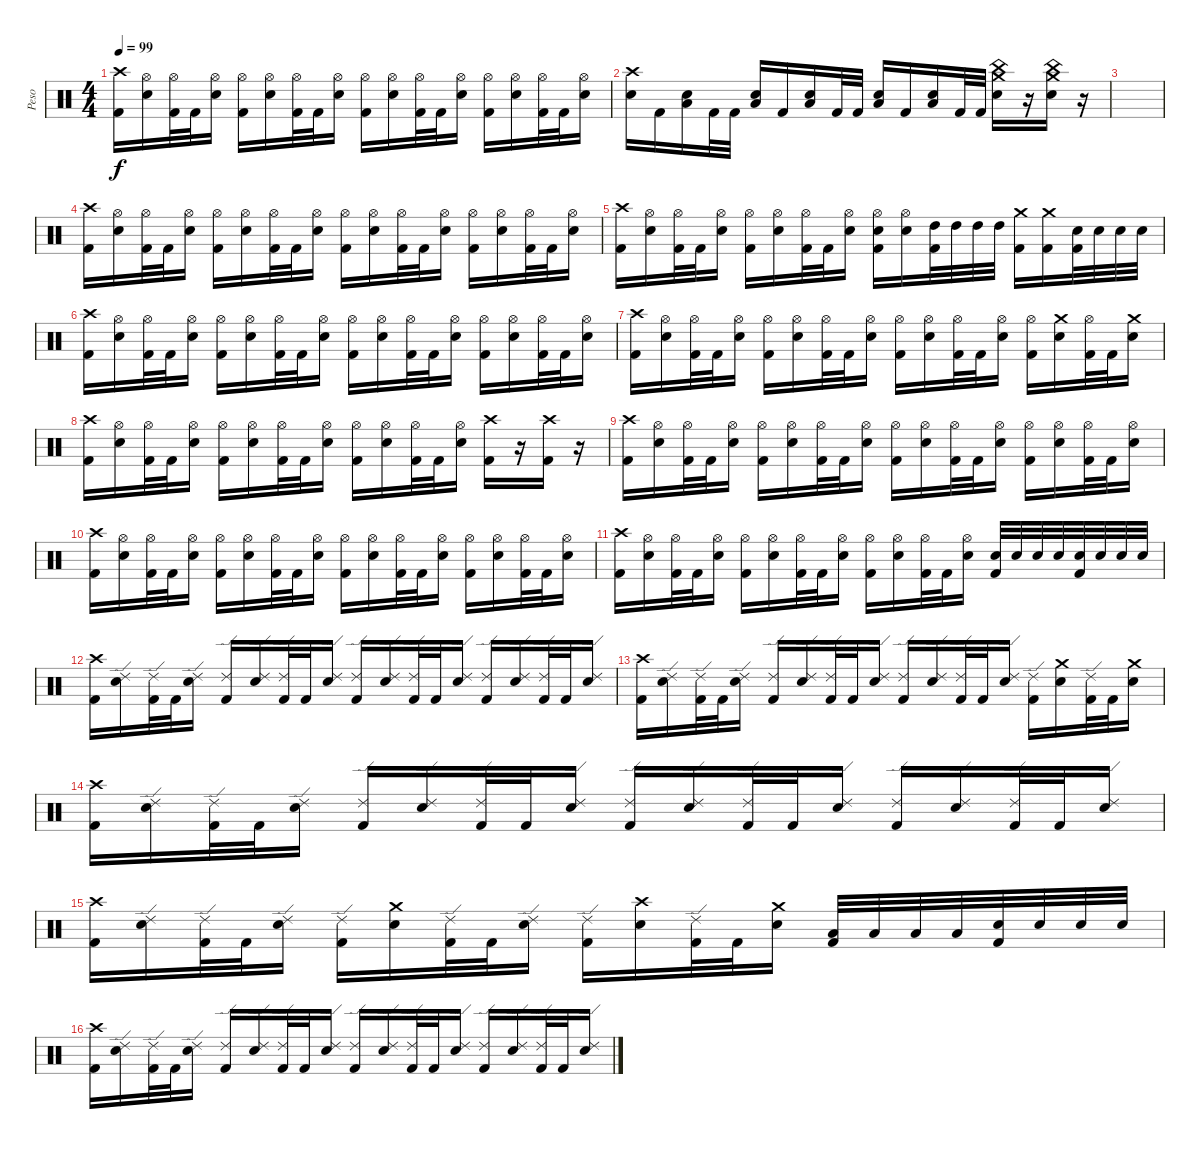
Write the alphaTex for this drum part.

\track ("Peso" "Peso") {instrument percussion}
\staff {score}
\articulation defaults
\ts (4 4)
\tempo 99
\clef neutral
\ks c
("Crash high (hit)" "Kick (hit) 2").16{dy f} ("Hi-Hat (open)" "Electric Snare (hit)").16 ("Hi-Hat (open)" "Kick (hit) 2").32 "Kick (hit) 2".32 ("Hi-Hat (open)" "Electric Snare (hit)").16 ("Hi-Hat (open)" "Kick (hit) 2").16 ("Hi-Hat (open)" "Electric Snare (hit)").16 ("Hi-Hat (open)" "Kick (hit) 2").32 "Kick (hit) 2".32 ("Hi-Hat (open)" "Electric Snare (hit)").16 ("Hi-Hat (open)" "Kick (hit) 2").16 ("Hi-Hat (open)" "Electric Snare (hit)").16 ("Hi-Hat (open)" "Kick (hit) 2").32 "Kick (hit) 2".32 ("Hi-Hat (open)" "Electric Snare (hit)").16 ("Hi-Hat (open)" "Kick (hit) 2").16 ("Hi-Hat (open)" "Electric Snare (hit)").16 ("Hi-Hat (open)" "Kick (hit) 2").32 "Kick (hit) 2".32 ("Hi-Hat (open)" "Electric Snare (hit)").16 |
("Crash high (hit)" "Electric Snare (hit)").16 "Kick (hit) 2".16 ("Low Floor Tom (hit)" "Electric Snare (hit)").16 "Kick (hit) 2".32 "Kick (hit) 2".32 ("Low Floor Tom (hit)" "Electric Snare (hit)").16 "Kick (hit) 2".16 ("Low Floor Tom (hit)" "Electric Snare (hit)").16 "Kick (hit) 2".32 "Kick (hit) 2".32 ("Low Floor Tom (hit)" "Electric Snare (hit)").16 "Kick (hit) 2".16 ("Low Floor Tom (hit)" "Electric Snare (hit)").16 "Kick (hit) 2".32 "Kick (hit) 2".32 ("Crash medium (hit)" "China (hit)" "Electric Snare (hit)").16 r.16 ("Crash medium (hit)" "China (hit)" "Electric Snare (hit)").16 r.16 |
|
("Crash high (hit)" "Kick (hit) 2").16 ("Hi-Hat (open)" "Electric Snare (hit)").16 ("Hi-Hat (open)" "Kick (hit) 2").32 "Kick (hit) 2".32 ("Hi-Hat (open)" "Electric Snare (hit)").16 ("Hi-Hat (open)" "Kick (hit) 2").16 ("Hi-Hat (open)" "Electric Snare (hit)").16 ("Hi-Hat (open)" "Kick (hit) 2").32 "Kick (hit) 2".32 ("Hi-Hat (open)" "Electric Snare (hit)").16 ("Hi-Hat (open)" "Kick (hit) 2").16 ("Hi-Hat (open)" "Electric Snare (hit)").16 ("Hi-Hat (open)" "Kick (hit) 2").32 "Kick (hit) 2".32 ("Hi-Hat (open)" "Electric Snare (hit)").16 ("Hi-Hat (open)" "Kick (hit) 2").16 ("Hi-Hat (open)" "Electric Snare (hit)").16 ("Hi-Hat (open)" "Kick (hit) 2").32 "Kick (hit) 2".32 ("Hi-Hat (open)" "Electric Snare (hit)").16 |
("Crash high (hit)" "Kick (hit) 2").16 ("Hi-Hat (open)" "Electric Snare (hit)").16 ("Hi-Hat (open)" "Kick (hit) 2").32 "Kick (hit) 2".32 ("Hi-Hat (open)" "Electric Snare (hit)").16 ("Hi-Hat (open)" "Kick (hit) 2").16 ("Hi-Hat (open)" "Electric Snare (hit)").16 ("Hi-Hat (open)" "Kick (hit) 2").32 "Kick (hit) 2".32 ("Hi-Hat (open)" "Electric Snare (hit)").16 ("Hi-Hat (open)" "Electric Snare (hit)" "Kick (hit) 2").16 ("Hi-Hat (open)" "Electric Snare (hit)").16 ("High Tom (hit)" "Kick (hit) 2").32 "High Tom (hit)".32 "High Tom (hit)".32 "High Tom (hit)".32 ("Crash medium (hit)" "Kick (hit) 2").16 ("Crash medium (hit)" "Kick (hit) 2").16 ("Electric Snare (hit)" "Kick (hit) 2").32 "Electric Snare (hit)".32 "Electric Snare (hit)".32 "Electric Snare (hit)".32 |
("Crash high (hit)" "Kick (hit) 2").16 ("Hi-Hat (open)" "Electric Snare (hit)").16 ("Hi-Hat (open)" "Kick (hit) 2").32 "Kick (hit) 2".32 ("Hi-Hat (open)" "Electric Snare (hit)").16 ("Hi-Hat (open)" "Kick (hit) 2").16 ("Hi-Hat (open)" "Electric Snare (hit)").16 ("Hi-Hat (open)" "Kick (hit) 2").32 "Kick (hit) 2".32 ("Hi-Hat (open)" "Electric Snare (hit)").16 ("Hi-Hat (open)" "Kick (hit) 2").16 ("Hi-Hat (open)" "Electric Snare (hit)").16 ("Hi-Hat (open)" "Kick (hit) 2").32 "Kick (hit) 2".32 ("Hi-Hat (open)" "Electric Snare (hit)").16 ("Hi-Hat (open)" "Kick (hit) 2").16 ("Hi-Hat (open)" "Electric Snare (hit)").16 ("Hi-Hat (open)" "Kick (hit) 2").32 "Kick (hit) 2".32 ("Hi-Hat (open)" "Electric Snare (hit)").16 |
("Crash high (hit)" "Kick (hit) 2").16 ("Hi-Hat (open)" "Electric Snare (hit)").16 ("Hi-Hat (open)" "Kick (hit) 2").32 "Kick (hit) 2".32 ("Hi-Hat (open)" "Electric Snare (hit)").16 ("Hi-Hat (open)" "Kick (hit) 2").16 ("Hi-Hat (open)" "Electric Snare (hit)").16 ("Hi-Hat (open)" "Kick (hit) 2").32 "Kick (hit) 2".32 ("Hi-Hat (open)" "Electric Snare (hit)").16 ("Hi-Hat (open)" "Kick (hit) 2").16 ("Hi-Hat (open)" "Electric Snare (hit)").16 ("Hi-Hat (open)" "Kick (hit) 2").32 "Kick (hit) 2".32 ("Hi-Hat (open)" "Electric Snare (hit)").16 ("Hi-Hat (open)" "Kick (hit) 2").16 ("Crash medium (hit)" "Electric Snare (hit)").16 ("Hi-Hat (open)" "Kick (hit) 2").32 "Kick (hit) 2".32 ("Crash medium (hit)" "Electric Snare (hit)").16 |
("Crash high (hit)" "Kick (hit) 2").16 ("Hi-Hat (open)" "Electric Snare (hit)").16 ("Hi-Hat (open)" "Kick (hit) 2").32 "Kick (hit) 2".32 ("Hi-Hat (open)" "Electric Snare (hit)").16 ("Hi-Hat (open)" "Kick (hit) 2").16 ("Hi-Hat (open)" "Electric Snare (hit)").16 ("Hi-Hat (open)" "Kick (hit) 2").32 "Kick (hit) 2".32 ("Hi-Hat (open)" "Electric Snare (hit)").16 ("Hi-Hat (open)" "Kick (hit) 2").16 ("Hi-Hat (open)" "Electric Snare (hit)").16 ("Hi-Hat (open)" "Kick (hit) 2").32 "Kick (hit) 2".32 ("Hi-Hat (open)" "Electric Snare (hit)").16 ("Crash high (hit)" "Kick (hit) 2").16 r.16 ("Crash high (hit)" "Kick (hit) 2").16 r.16 |
("Crash high (hit)" "Kick (hit) 2").16 ("Hi-Hat (open)" "Electric Snare (hit)").16 ("Hi-Hat (open)" "Kick (hit) 2").32 "Kick (hit) 2".32 ("Hi-Hat (open)" "Electric Snare (hit)").16 ("Hi-Hat (open)" "Kick (hit) 2").16 ("Hi-Hat (open)" "Electric Snare (hit)").16 ("Hi-Hat (open)" "Kick (hit) 2").32 "Kick (hit) 2".32 ("Hi-Hat (open)" "Electric Snare (hit)").16 ("Hi-Hat (open)" "Kick (hit) 2").16 ("Hi-Hat (open)" "Electric Snare (hit)").16 ("Hi-Hat (open)" "Kick (hit) 2").32 "Kick (hit) 2".32 ("Hi-Hat (open)" "Electric Snare (hit)").16 ("Hi-Hat (open)" "Kick (hit) 2").16 ("Hi-Hat (open)" "Electric Snare (hit)").16 ("Hi-Hat (open)" "Kick (hit) 2").32 "Kick (hit) 2".32 ("Hi-Hat (open)" "Electric Snare (hit)").16 |
("Crash high (hit)" "Kick (hit) 2").16 ("Hi-Hat (open)" "Electric Snare (hit)").16 ("Hi-Hat (open)" "Kick (hit) 2").32 "Kick (hit) 2".32 ("Hi-Hat (open)" "Electric Snare (hit)").16 ("Hi-Hat (open)" "Kick (hit) 2").16 ("Hi-Hat (open)" "Electric Snare (hit)").16 ("Hi-Hat (open)" "Kick (hit) 2").32 "Kick (hit) 2".32 ("Hi-Hat (open)" "Electric Snare (hit)").16 ("Hi-Hat (open)" "Kick (hit) 2").16 ("Hi-Hat (open)" "Electric Snare (hit)").16 ("Hi-Hat (open)" "Kick (hit) 2").32 "Kick (hit) 2".32 ("Hi-Hat (open)" "Electric Snare (hit)").16 ("Hi-Hat (open)" "Kick (hit) 2").16 ("Hi-Hat (open)" "Electric Snare (hit)").16 ("Hi-Hat (open)" "Kick (hit) 2").32 "Kick (hit) 2".32 ("Hi-Hat (open)" "Electric Snare (hit)").16 |
("Crash high (hit)" "Kick (hit) 2").16 ("Hi-Hat (open)" "Electric Snare (hit)").16 ("Hi-Hat (open)" "Kick (hit) 2").32 "Kick (hit) 2".32 ("Hi-Hat (open)" "Electric Snare (hit)").16 ("Hi-Hat (open)" "Kick (hit) 2").16 ("Hi-Hat (open)" "Electric Snare (hit)").16 ("Hi-Hat (open)" "Kick (hit) 2").32 "Kick (hit) 2".32 ("Hi-Hat (open)" "Electric Snare (hit)").16 ("Hi-Hat (open)" "Kick (hit) 2").16 ("Hi-Hat (open)" "Electric Snare (hit)").16 ("Hi-Hat (open)" "Kick (hit) 2").32 "Kick (hit) 2".32 ("Hi-Hat (open)" "Electric Snare (hit)").16 ("Electric Snare (hit)" "Kick (hit) 2").32 "Electric Snare (hit)".32 "Electric Snare (hit)".32 "Electric Snare (hit)".32 ("Electric Snare (hit)" "Kick (hit) 2").32 "Electric Snare (hit)".32 "Electric Snare (hit)".32 "Electric Snare (hit)".32 |
("Crash high (hit)" "Kick (hit) 2").16 ("Ride (edge) 2" "Electric Snare (hit)").16 ("Ride (edge) 2" "Kick (hit) 2").32 "Kick (hit) 2".32 ("Ride (edge) 2" "Electric Snare (hit)").16 ("Ride (edge) 2" "Kick (hit) 2").16 ("Ride (edge) 2" "Electric Snare (hit)").16 ("Ride (edge) 2" "Kick (hit) 2").32 "Kick (hit) 2".32 ("Ride (edge) 2" "Electric Snare (hit)").16 ("Ride (edge) 2" "Kick (hit) 2").16 ("Ride (edge) 2" "Electric Snare (hit)").16 ("Ride (edge) 2" "Kick (hit) 2").32 "Kick (hit) 2".32 ("Ride (edge) 2" "Electric Snare (hit)").16 ("Ride (edge) 2" "Kick (hit) 2").16 ("Ride (edge) 2" "Electric Snare (hit)").16 ("Ride (edge) 2" "Kick (hit) 2").32 "Kick (hit) 2".32 ("Ride (edge) 2" "Electric Snare (hit)").16 |
("Crash high (hit)" "Kick (hit) 2").16 ("Ride (edge) 2" "Electric Snare (hit)").16 ("Ride (edge) 2" "Kick (hit) 2").32 "Kick (hit) 2".32 ("Ride (edge) 2" "Electric Snare (hit)").16 ("Ride (edge) 2" "Kick (hit) 2").16 ("Ride (edge) 2" "Electric Snare (hit)").16 ("Ride (edge) 2" "Kick (hit) 2").32 "Kick (hit) 2".32 ("Ride (edge) 2" "Electric Snare (hit)").16 ("Ride (edge) 2" "Kick (hit) 2").16 ("Ride (edge) 2" "Electric Snare (hit)").16 ("Ride (edge) 2" "Kick (hit) 2").32 "Kick (hit) 2".32 ("Ride (edge) 2" "Electric Snare (hit)").16 ("Ride (edge) 2" "Kick (hit) 2").16 ("Crash medium (hit)" "Electric Snare (hit)").16 ("Ride (edge) 2" "Kick (hit) 2").32 "Kick (hit) 2".32 ("Crash medium (hit)" "Electric Snare (hit)").16 |
("Crash high (hit)" "Kick (hit) 2").16 ("Ride (edge) 2" "Electric Snare (hit)").16 ("Ride (edge) 2" "Kick (hit) 2").32 "Kick (hit) 2".32 ("Ride (edge) 2" "Electric Snare (hit)").16 ("Ride (edge) 2" "Kick (hit) 2").16 ("Ride (edge) 2" "Electric Snare (hit)").16 ("Ride (edge) 2" "Kick (hit) 2").32 "Kick (hit) 2".32 ("Ride (edge) 2" "Electric Snare (hit)").16 ("Ride (edge) 2" "Kick (hit) 2").16 ("Ride (edge) 2" "Electric Snare (hit)").16 ("Ride (edge) 2" "Kick (hit) 2").32 "Kick (hit) 2".32 ("Ride (edge) 2" "Electric Snare (hit)").16 ("Ride (edge) 2" "Kick (hit) 2").16 ("Ride (edge) 2" "Electric Snare (hit)").16 ("Ride (edge) 2" "Kick (hit) 2").32 "Kick (hit) 2".32 ("Ride (edge) 2" "Electric Snare (hit)").16 |
("Crash high (hit)" "Kick (hit) 2").16 ("Ride (edge) 2" "Electric Snare (hit)").16 ("Ride (edge) 2" "Kick (hit) 2").32 "Kick (hit) 2".32 ("Ride (edge) 2" "Electric Snare (hit)").16 ("Ride (edge) 2" "Kick (hit) 2").16 ("Crash medium (hit)" "Electric Snare (hit)").16 ("Ride (edge) 2" "Kick (hit) 2").32 "Kick (hit) 2".32 ("Ride (edge) 2" "Electric Snare (hit)").16 ("Ride (edge) 2" "Kick (hit) 2").16 ("Crash high (hit)" "Electric Snare (hit)").16 ("Ride (edge) 2" "Kick (hit) 2").32 "Kick (hit) 2".32 ("Crash medium (hit)" "Electric Snare (hit)").16 ("Low Tom (hit)" "Kick (hit) 2").32 "Low Tom (hit)".32 "Low Tom (hit)".32 "Low Tom (hit)".32 ("Electric Snare (hit)" "Kick (hit) 2").32 "Electric Snare (hit)".32 "Electric Snare (hit)".32 "Electric Snare (hit)".32 |
("Crash high (hit)" "Kick (hit) 2").16 ("Ride (edge) 2" "Electric Snare (hit)").16 ("Ride (edge) 2" "Kick (hit) 2").32 "Kick (hit) 2".32 ("Ride (edge) 2" "Electric Snare (hit)").16 ("Ride (edge) 2" "Kick (hit) 2").16 ("Ride (edge) 2" "Electric Snare (hit)").16 ("Ride (edge) 2" "Kick (hit) 2").32 "Kick (hit) 2".32 ("Ride (edge) 2" "Electric Snare (hit)").16 ("Ride (edge) 2" "Kick (hit) 2").16 ("Ride (edge) 2" "Electric Snare (hit)").16 ("Ride (edge) 2" "Kick (hit) 2").32 "Kick (hit) 2".32 ("Ride (edge) 2" "Electric Snare (hit)").16 ("Ride (edge) 2" "Kick (hit) 2").16 ("Ride (edge) 2" "Electric Snare (hit)").16 ("Ride (edge) 2" "Kick (hit) 2").32 "Kick (hit) 2".32 ("Ride (edge) 2" "Electric Snare (hit)").16
